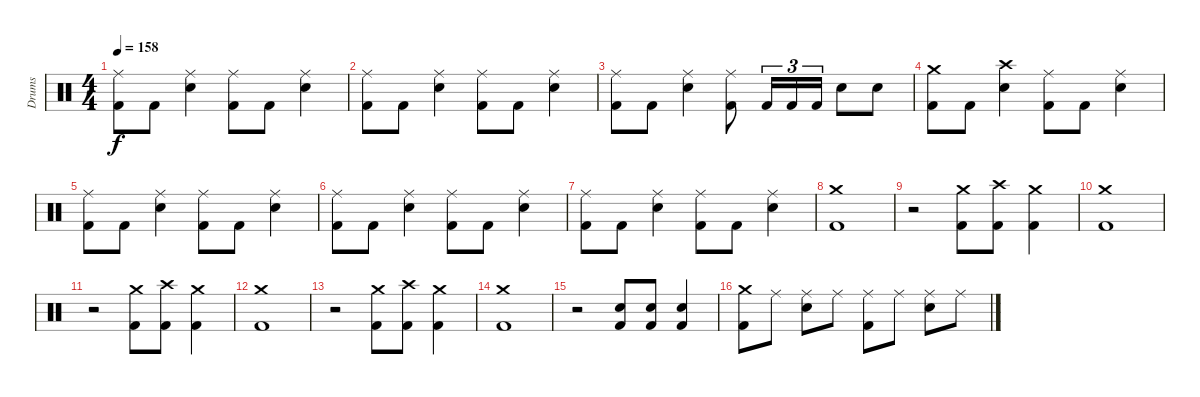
\track ("Drums" "Drums") {instrument percussion}
\staff {score}
\articulation defaults
\ts (4 4)
\tempo 158
\clef neutral
\ks c
("Ride (middle)" "Kick (hit) 2").8{dy f} "Kick (hit) 2".8 ("Ride (middle)" "Electric Snare (hit)").4 ("Ride (middle)" "Kick (hit) 2").8 "Kick (hit) 2".8 ("Ride (middle)" "Electric Snare (hit)").4 |
("Ride (middle)" "Kick (hit) 2").8 "Kick (hit) 2".8 ("Ride (middle)" "Electric Snare (hit)").4 ("Ride (middle)" "Kick (hit) 2").8 "Kick (hit) 2".8 ("Ride (middle)" "Electric Snare (hit)").4 |
("Ride (middle)" "Kick (hit) 2").8 "Kick (hit) 2".8 ("Ride (middle)" "Electric Snare (hit)").4 ("Ride (middle)" "Kick (hit) 2").8 "Kick (hit) 2".16{tu (3 2)} "Kick (hit) 2".16{tu (3 2)} "Kick (hit) 2".16{tu (3 2)} "Electric Snare (hit)".8 "Electric Snare (hit)".8 |
("Crash medium (hit)" "Kick (hit) 2").8 "Kick (hit) 2".8 ("Crash high (hit)" "Electric Snare (hit)").4 ("Ride (middle)" "Kick (hit) 2").8 "Kick (hit) 2".8 ("Ride (middle)" "Electric Snare (hit)").4 |
("Ride (middle)" "Kick (hit) 2").8 "Kick (hit) 2".8 ("Ride (middle)" "Electric Snare (hit)").4 ("Ride (middle)" "Kick (hit) 2").8 "Kick (hit) 2".8 ("Ride (middle)" "Electric Snare (hit)").4 |
("Ride (middle)" "Kick (hit) 2").8 "Kick (hit) 2".8 ("Ride (middle)" "Electric Snare (hit)").4 ("Ride (middle)" "Kick (hit) 2").8 "Kick (hit) 2".8 ("Ride (middle)" "Electric Snare (hit)").4 |
("Ride (middle)" "Kick (hit) 2").8 "Kick (hit) 2".8 ("Ride (middle)" "Electric Snare (hit)").4 ("Ride (middle)" "Kick (hit) 2").8 "Kick (hit) 2".8 ("Ride (middle)" "Electric Snare (hit)").4 |
\section ("" "")
("Crash medium (hit)" "Kick (hit) 2").1 |
r.2 ("Crash medium (hit)" "Kick (hit) 2").8 ("Crash high (hit)" "Kick (hit) 2").8 ("Crash medium (hit)" "Kick (hit) 2").4 |
("Crash medium (hit)" "Kick (hit) 2").1 |
r.2 ("Crash medium (hit)" "Kick (hit) 2").8 ("Crash high (hit)" "Kick (hit) 2").8 ("Crash medium (hit)" "Kick (hit) 2").4 |
("Crash medium (hit)" "Kick (hit) 2").1 |
r.2 ("Crash medium (hit)" "Kick (hit) 2").8 ("Crash high (hit)" "Kick (hit) 2").8 ("Crash medium (hit)" "Kick (hit) 2").4 |
("Crash medium (hit)" "Kick (hit) 2").1 |
r.2 ("Electric Snare (hit)" "Kick (hit) 2").8 ("Electric Snare (hit)" "Kick (hit) 2").8 ("Electric Snare (hit)" "Kick (hit) 2").4 |
\section ("" "")
("Crash medium (hit)" "Kick (hit) 2").8 "Ride (middle)".8 ("Ride (middle)" "Electric Snare (hit)").8 "Ride (middle)".8 ("Ride (middle)" "Kick (hit) 2").8 "Ride (middle)".8 ("Ride (middle)" "Electric Snare (hit)").8 "Ride (middle)".8
